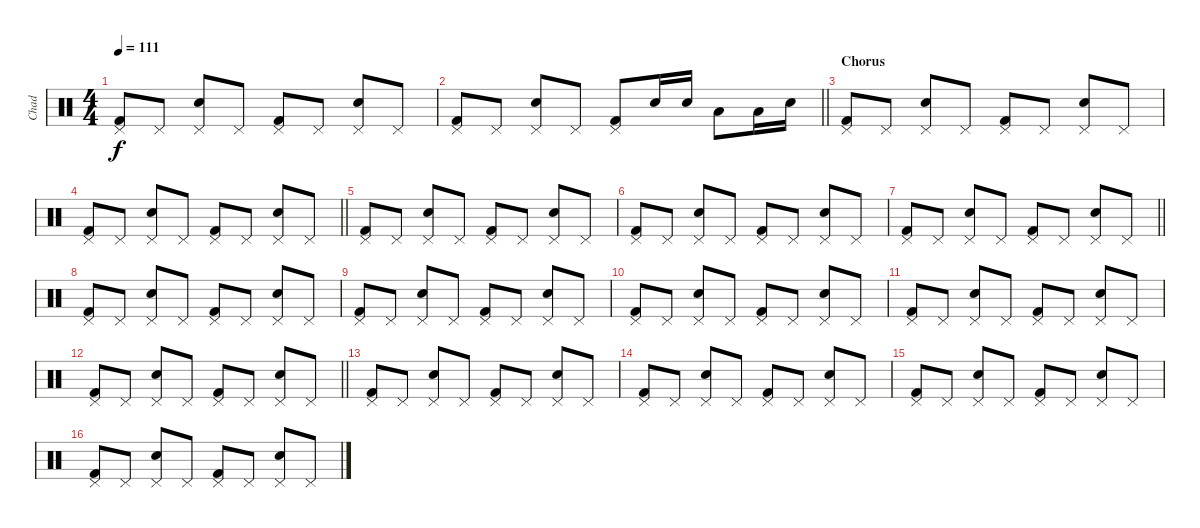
\track ("Chad" "Chad") {instrument percussion}
\staff {score}
\articulation defaults
\ts (4 4)
\tempo 111
\clef neutral
\ks c
("Pedal Hi-Hat (hit)" "Kick (hit) 2").8{dy f} "Pedal Hi-Hat (hit)".8 ("Pedal Hi-Hat (hit)" "Snare (hit) 2").8 "Pedal Hi-Hat (hit)".8 ("Pedal Hi-Hat (hit)" "Kick (hit) 2").8 "Pedal Hi-Hat (hit)".8 ("Pedal Hi-Hat (hit)" "Snare (hit) 2").8 "Pedal Hi-Hat (hit)".8 |
\barLineRight lightlight
("Pedal Hi-Hat (hit)" "Kick (hit) 2").8 "Pedal Hi-Hat (hit)".8 ("Pedal Hi-Hat (hit)" "Snare (hit) 2").8 "Pedal Hi-Hat (hit)".8 ("Pedal Hi-Hat (hit)" "Kick (hit) 2").8 "Snare (hit) 2".16 "Snare (hit) 2".16 "Low Floor Tom (hit)".8 "Low Tom (hit)".16 "Snare (hit) 2".16 |
\section ("" "Chorus")
("Pedal Hi-Hat (hit)" "Kick (hit) 2").8 "Pedal Hi-Hat (hit)".8 ("Pedal Hi-Hat (hit)" "Snare (hit) 2").8 "Pedal Hi-Hat (hit)".8 ("Pedal Hi-Hat (hit)" "Kick (hit) 2").8 "Pedal Hi-Hat (hit)".8 ("Pedal Hi-Hat (hit)" "Snare (hit) 2").8 "Pedal Hi-Hat (hit)".8 |
\barLineRight lightlight
("Pedal Hi-Hat (hit)" "Kick (hit) 2").8 "Pedal Hi-Hat (hit)".8 ("Pedal Hi-Hat (hit)" "Snare (hit) 2").8 "Pedal Hi-Hat (hit)".8 ("Pedal Hi-Hat (hit)" "Kick (hit) 2").8 "Pedal Hi-Hat (hit)".8 ("Pedal Hi-Hat (hit)" "Snare (hit) 2").8 "Pedal Hi-Hat (hit)".8 |
("Pedal Hi-Hat (hit)" "Kick (hit) 2").8 "Pedal Hi-Hat (hit)".8 ("Pedal Hi-Hat (hit)" "Snare (hit) 2").8 "Pedal Hi-Hat (hit)".8 ("Pedal Hi-Hat (hit)" "Kick (hit) 2").8 "Pedal Hi-Hat (hit)".8 ("Pedal Hi-Hat (hit)" "Snare (hit) 2").8 "Pedal Hi-Hat (hit)".8 |
("Pedal Hi-Hat (hit)" "Kick (hit) 2").8 "Pedal Hi-Hat (hit)".8 ("Pedal Hi-Hat (hit)" "Snare (hit) 2").8 "Pedal Hi-Hat (hit)".8 ("Pedal Hi-Hat (hit)" "Kick (hit) 2").8 "Pedal Hi-Hat (hit)".8 ("Pedal Hi-Hat (hit)" "Snare (hit) 2").8 "Pedal Hi-Hat (hit)".8 |
\barLineRight lightlight
("Pedal Hi-Hat (hit)" "Kick (hit) 2").8 "Pedal Hi-Hat (hit)".8 ("Pedal Hi-Hat (hit)" "Snare (hit) 2").8 "Pedal Hi-Hat (hit)".8 ("Pedal Hi-Hat (hit)" "Kick (hit) 2").8 "Pedal Hi-Hat (hit)".8 ("Pedal Hi-Hat (hit)" "Snare (hit) 2").8 "Pedal Hi-Hat (hit)".8 |
("Pedal Hi-Hat (hit)" "Kick (hit) 2").8 "Pedal Hi-Hat (hit)".8 ("Pedal Hi-Hat (hit)" "Snare (hit) 2").8 "Pedal Hi-Hat (hit)".8 ("Pedal Hi-Hat (hit)" "Kick (hit) 2").8 "Pedal Hi-Hat (hit)".8 ("Pedal Hi-Hat (hit)" "Snare (hit) 2").8 "Pedal Hi-Hat (hit)".8 |
("Pedal Hi-Hat (hit)" "Kick (hit) 2").8 "Pedal Hi-Hat (hit)".8 ("Pedal Hi-Hat (hit)" "Snare (hit) 2").8 "Pedal Hi-Hat (hit)".8 ("Pedal Hi-Hat (hit)" "Kick (hit) 2").8 "Pedal Hi-Hat (hit)".8 ("Pedal Hi-Hat (hit)" "Snare (hit) 2").8 "Pedal Hi-Hat (hit)".8 |
("Pedal Hi-Hat (hit)" "Kick (hit) 2").8 "Pedal Hi-Hat (hit)".8 ("Pedal Hi-Hat (hit)" "Snare (hit) 2").8 "Pedal Hi-Hat (hit)".8 ("Pedal Hi-Hat (hit)" "Kick (hit) 2").8 "Pedal Hi-Hat (hit)".8 ("Pedal Hi-Hat (hit)" "Snare (hit) 2").8 "Pedal Hi-Hat (hit)".8 |
("Pedal Hi-Hat (hit)" "Kick (hit) 2").8 "Pedal Hi-Hat (hit)".8 ("Pedal Hi-Hat (hit)" "Snare (hit) 2").8 "Pedal Hi-Hat (hit)".8 ("Pedal Hi-Hat (hit)" "Kick (hit) 2").8 "Pedal Hi-Hat (hit)".8 ("Pedal Hi-Hat (hit)" "Snare (hit) 2").8 "Pedal Hi-Hat (hit)".8 |
\barLineRight lightlight
("Pedal Hi-Hat (hit)" "Kick (hit) 2").8 "Pedal Hi-Hat (hit)".8 ("Pedal Hi-Hat (hit)" "Snare (hit) 2").8 "Pedal Hi-Hat (hit)".8 ("Pedal Hi-Hat (hit)" "Kick (hit) 2").8 "Pedal Hi-Hat (hit)".8 ("Pedal Hi-Hat (hit)" "Snare (hit) 2").8 "Pedal Hi-Hat (hit)".8 |
("Pedal Hi-Hat (hit)" "Kick (hit) 2").8 "Pedal Hi-Hat (hit)".8 ("Pedal Hi-Hat (hit)" "Snare (hit) 2").8 "Pedal Hi-Hat (hit)".8 ("Pedal Hi-Hat (hit)" "Kick (hit) 2").8 "Pedal Hi-Hat (hit)".8 ("Pedal Hi-Hat (hit)" "Snare (hit) 2").8 "Pedal Hi-Hat (hit)".8 |
("Pedal Hi-Hat (hit)" "Kick (hit) 2").8 "Pedal Hi-Hat (hit)".8 ("Pedal Hi-Hat (hit)" "Snare (hit) 2").8 "Pedal Hi-Hat (hit)".8 ("Pedal Hi-Hat (hit)" "Kick (hit) 2").8 "Pedal Hi-Hat (hit)".8 ("Pedal Hi-Hat (hit)" "Snare (hit) 2").8 "Pedal Hi-Hat (hit)".8 |
("Pedal Hi-Hat (hit)" "Kick (hit) 2").8 "Pedal Hi-Hat (hit)".8 ("Pedal Hi-Hat (hit)" "Snare (hit) 2").8 "Pedal Hi-Hat (hit)".8 ("Pedal Hi-Hat (hit)" "Kick (hit) 2").8 "Pedal Hi-Hat (hit)".8 ("Pedal Hi-Hat (hit)" "Snare (hit) 2").8 "Pedal Hi-Hat (hit)".8 |
("Pedal Hi-Hat (hit)" "Kick (hit) 2").8 "Pedal Hi-Hat (hit)".8 ("Pedal Hi-Hat (hit)" "Snare (hit) 2").8 "Pedal Hi-Hat (hit)".8 ("Pedal Hi-Hat (hit)" "Kick (hit) 2").8 "Pedal Hi-Hat (hit)".8 ("Pedal Hi-Hat (hit)" "Snare (hit) 2").8 "Pedal Hi-Hat (hit)".8
